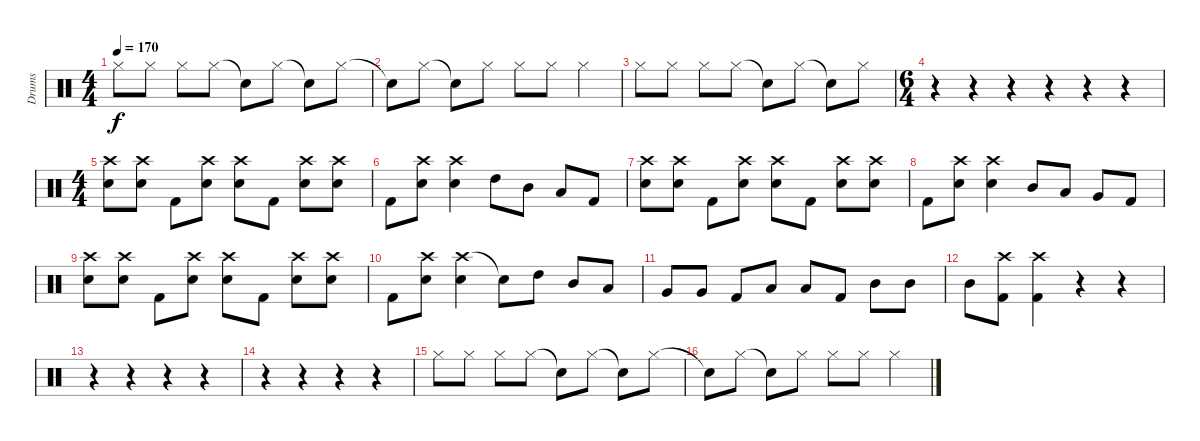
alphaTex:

\track ("Drums" "Drums") {mute instrument percussion}
\staff {score}
\articulation defaults
\ts (4 4)
\tempo 170
\clef neutral
\ks c "Hi-Hat (closed)".8{dy f} "Hi-Hat (closed)".8 "Hi-Hat (closed)".8 "Hi-Hat (closed)".8 "Snare (hit)"{t}.8 "Hi-Hat (closed)".8 "Snare (hit)"{t}.8 "Hi-Hat (closed)".8
|
"Snare (hit)"{t}.8 "Hi-Hat (closed)".8 "Snare (hit)"{t}.8 "Hi-Hat (closed)".8 "Hi-Hat (closed)".8 "Hi-Hat (closed)".8 "Hi-Hat (closed)".4 |
"Hi-Hat (closed)".8 "Hi-Hat (closed)".8 "Hi-Hat (closed)".8 "Hi-Hat (closed)".8 "Snare (hit)"{t}.8 "Hi-Hat (closed)".8 "Snare (hit)"{t}.8 "Hi-Hat (closed)".8 |
\ts (6 4)
r.4 r.4 r.4 r.4 r.4 r.4 |
\ts (4 4)
("Crash high (hit)" "Electric Snare (hit)").8 ("Crash high (hit)" "Electric Snare (hit)").8 "Kick (hit) 2".8 ("Crash high (hit)" "Electric Snare (hit)").8 ("Crash high (hit)" "Electric Snare (hit)").8 "Kick (hit) 2".8 ("Crash high (hit)" "Electric Snare (hit)").8 ("Crash high (hit)" "Electric Snare (hit)").8 |
"Kick (hit) 2".8 ("Crash high (hit)" "Electric Snare (hit)").8 ("Crash high (hit)" "Electric Snare (hit)").4 "High Tom (hit)".8 "Mid Tom (hit)".8 "Low Tom (hit)".8 "Kick (hit) 2".8 |
("Crash high (hit)" "Electric Snare (hit)").8 ("Crash high (hit)" "Electric Snare (hit)").8 "Kick (hit) 2".8 ("Crash high (hit)" "Electric Snare (hit)").8 ("Crash high (hit)" "Electric Snare (hit)").8 "Kick (hit) 2".8 ("Crash high (hit)" "Electric Snare (hit)").8 ("Crash high (hit)" "Electric Snare (hit)").8 |
"Kick (hit) 2".8 ("Crash high (hit)" "Electric Snare (hit)").8 ("Crash high (hit)" "Electric Snare (hit)").4 "Mid Tom (hit)".8 "Low Tom (hit)".8 "Very Low Tom (hit)".8 "Kick (hit) 2".8 |
("Crash high (hit)" "Electric Snare (hit)").8 ("Crash high (hit)" "Electric Snare (hit)").8 "Kick (hit) 2".8 ("Crash high (hit)" "Electric Snare (hit)").8 ("Crash high (hit)" "Electric Snare (hit)").8 "Kick (hit) 2".8 ("Crash high (hit)" "Electric Snare (hit)").8 ("Crash high (hit)" "Electric Snare (hit)").8 |
"Kick (hit) 2".8 ("Crash high (hit)" "Electric Snare (hit)").8 ("Crash high (hit)" "Electric Snare (hit)").4 "Snare (hit)"{t}.8 "High Tom (hit)".8 "Mid Tom (hit)".8 "Low Tom (hit)".8 |
"Very Low Tom (hit)".8 "Very Low Tom (hit)".8 "Kick (hit) 2".8 "Low Tom (hit)".8 "Low Tom (hit)".8 "Kick (hit) 2".8 "Mid Tom (hit)".8 "Mid Tom (hit)".8 |
"Mid Tom (hit)".8 ("Crash high (hit)" "Kick (hit) 2").8 ("Crash high (hit)" "Kick (hit) 2").4 r.4 r.4 |
r.4 r.4 r.4 r.4 |
r.4 r.4 r.4 r.4 |
"Hi-Hat (closed)".8 "Hi-Hat (closed)".8 "Hi-Hat (closed)".8 "Hi-Hat (closed)".8 "Snare (hit)"{t}.8 "Hi-Hat (closed)".8 "Snare (hit)"{t}.8 "Hi-Hat (closed)".8 |
"Snare (hit)"{t}.8 "Hi-Hat (closed)".8 "Snare (hit)"{t}.8 "Hi-Hat (closed)".8 "Hi-Hat (closed)".8 "Hi-Hat (closed)".8 "Hi-Hat (closed)".4
